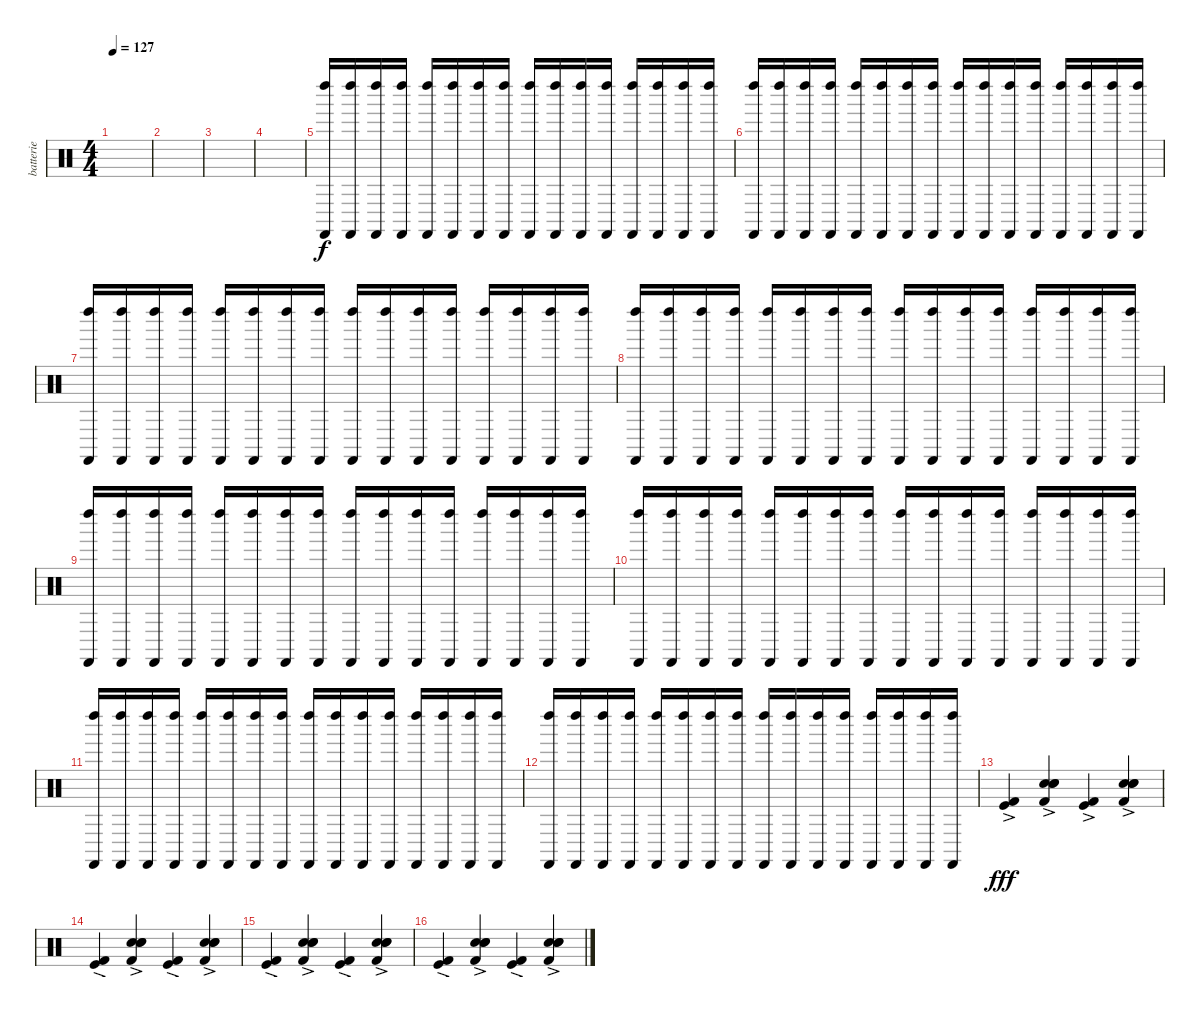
\track ("batterie" "batterie") {instrument percussion}
\staff {score}
\articulation defaults
\ts (4 4)
\tempo 127
\clef neutral
\ks c
|
|
|
|
("Castanets (hit)" "Left Maraca (hit)").16 ("Castanets (hit)" "Left Maraca (hit)").16 ("Castanets (hit)" "Left Maraca (hit)").16 ("Castanets (hit)" "Left Maraca (hit)").16 ("Castanets (hit)" "Left Maraca (hit)").16 ("Castanets (hit)" "Left Maraca (hit)").16 ("Castanets (hit)" "Left Maraca (hit)").16 ("Castanets (hit)" "Left Maraca (hit)").16 ("Castanets (hit)" "Left Maraca (hit)").16 ("Castanets (hit)" "Left Maraca (hit)").16 ("Castanets (hit)" "Left Maraca (hit)").16 ("Castanets (hit)" "Left Maraca (hit)").16 ("Castanets (hit)" "Left Maraca (hit)").16 ("Castanets (hit)" "Left Maraca (hit)").16 ("Castanets (hit)" "Left Maraca (hit)").16 ("Castanets (hit)" "Left Maraca (hit)").16 |
("Castanets (hit)" "Left Maraca (hit)").16 ("Castanets (hit)" "Left Maraca (hit)").16 ("Castanets (hit)" "Left Maraca (hit)").16 ("Castanets (hit)" "Left Maraca (hit)").16 ("Castanets (hit)" "Left Maraca (hit)").16 ("Castanets (hit)" "Left Maraca (hit)").16 ("Castanets (hit)" "Left Maraca (hit)").16 ("Castanets (hit)" "Left Maraca (hit)").16 ("Castanets (hit)" "Left Maraca (hit)").16 ("Castanets (hit)" "Left Maraca (hit)").16 ("Castanets (hit)" "Left Maraca (hit)").16 ("Castanets (hit)" "Left Maraca (hit)").16 ("Castanets (hit)" "Left Maraca (hit)").16 ("Castanets (hit)" "Left Maraca (hit)").16 ("Castanets (hit)" "Left Maraca (hit)").16 ("Castanets (hit)" "Left Maraca (hit)").16 |
("Castanets (hit)" "Left Maraca (hit)").16 ("Castanets (hit)" "Left Maraca (hit)").16 ("Castanets (hit)" "Left Maraca (hit)").16 ("Castanets (hit)" "Left Maraca (hit)").16 ("Castanets (hit)" "Left Maraca (hit)").16 ("Castanets (hit)" "Left Maraca (hit)").16 ("Castanets (hit)" "Left Maraca (hit)").16 ("Castanets (hit)" "Left Maraca (hit)").16 ("Castanets (hit)" "Left Maraca (hit)").16 ("Castanets (hit)" "Left Maraca (hit)").16 ("Castanets (hit)" "Left Maraca (hit)").16 ("Castanets (hit)" "Left Maraca (hit)").16 ("Castanets (hit)" "Left Maraca (hit)").16 ("Castanets (hit)" "Left Maraca (hit)").16 ("Castanets (hit)" "Left Maraca (hit)").16 ("Castanets (hit)" "Left Maraca (hit)").16 |
("Castanets (hit)" "Left Maraca (hit)").16 ("Castanets (hit)" "Left Maraca (hit)").16 ("Castanets (hit)" "Left Maraca (hit)").16 ("Castanets (hit)" "Left Maraca (hit)").16 ("Castanets (hit)" "Left Maraca (hit)").16 ("Castanets (hit)" "Left Maraca (hit)").16 ("Castanets (hit)" "Left Maraca (hit)").16 ("Castanets (hit)" "Left Maraca (hit)").16 ("Castanets (hit)" "Left Maraca (hit)").16 ("Castanets (hit)" "Left Maraca (hit)").16 ("Castanets (hit)" "Left Maraca (hit)").16 ("Castanets (hit)" "Left Maraca (hit)").16 ("Castanets (hit)" "Left Maraca (hit)").16 ("Castanets (hit)" "Left Maraca (hit)").16 ("Castanets (hit)" "Left Maraca (hit)").16 ("Castanets (hit)" "Left Maraca (hit)").16 |
("Castanets (hit)" "Left Maraca (hit)").16 ("Castanets (hit)" "Left Maraca (hit)").16 ("Castanets (hit)" "Left Maraca (hit)").16 ("Castanets (hit)" "Left Maraca (hit)").16 ("Castanets (hit)" "Left Maraca (hit)").16 ("Castanets (hit)" "Left Maraca (hit)").16 ("Castanets (hit)" "Left Maraca (hit)").16 ("Castanets (hit)" "Left Maraca (hit)").16 ("Castanets (hit)" "Left Maraca (hit)").16 ("Castanets (hit)" "Left Maraca (hit)").16 ("Castanets (hit)" "Left Maraca (hit)").16 ("Castanets (hit)" "Left Maraca (hit)").16 ("Castanets (hit)" "Left Maraca (hit)").16 ("Castanets (hit)" "Left Maraca (hit)").16 ("Castanets (hit)" "Left Maraca (hit)").16 ("Castanets (hit)" "Left Maraca (hit)").16 |
("Castanets (hit)" "Left Maraca (hit)").16 ("Castanets (hit)" "Left Maraca (hit)").16 ("Castanets (hit)" "Left Maraca (hit)").16 ("Castanets (hit)" "Left Maraca (hit)").16 ("Castanets (hit)" "Left Maraca (hit)").16 ("Castanets (hit)" "Left Maraca (hit)").16 ("Castanets (hit)" "Left Maraca (hit)").16 ("Castanets (hit)" "Left Maraca (hit)").16 ("Castanets (hit)" "Left Maraca (hit)").16 ("Castanets (hit)" "Left Maraca (hit)").16 ("Castanets (hit)" "Left Maraca (hit)").16 ("Castanets (hit)" "Left Maraca (hit)").16 ("Castanets (hit)" "Left Maraca (hit)").16 ("Castanets (hit)" "Left Maraca (hit)").16 ("Castanets (hit)" "Left Maraca (hit)").16 ("Castanets (hit)" "Left Maraca (hit)").16 |
("Castanets (hit)" "Left Maraca (hit)").16 ("Castanets (hit)" "Left Maraca (hit)").16 ("Castanets (hit)" "Left Maraca (hit)").16 ("Castanets (hit)" "Left Maraca (hit)").16 ("Castanets (hit)" "Left Maraca (hit)").16 ("Castanets (hit)" "Left Maraca (hit)").16 ("Castanets (hit)" "Left Maraca (hit)").16 ("Castanets (hit)" "Left Maraca (hit)").16 ("Castanets (hit)" "Left Maraca (hit)").16 ("Castanets (hit)" "Left Maraca (hit)").16 ("Castanets (hit)" "Left Maraca (hit)").16 ("Castanets (hit)" "Left Maraca (hit)").16 ("Castanets (hit)" "Left Maraca (hit)").16 ("Castanets (hit)" "Left Maraca (hit)").16 ("Castanets (hit)" "Left Maraca (hit)").16 ("Castanets (hit)" "Left Maraca (hit)").16 |
("Castanets (hit)" "Left Maraca (hit)").16 ("Castanets (hit)" "Left Maraca (hit)").16 ("Castanets (hit)" "Left Maraca (hit)").16 ("Castanets (hit)" "Left Maraca (hit)").16 ("Castanets (hit)" "Left Maraca (hit)").16 ("Castanets (hit)" "Left Maraca (hit)").16 ("Castanets (hit)" "Left Maraca (hit)").16 ("Castanets (hit)" "Left Maraca (hit)").16 ("Castanets (hit)" "Left Maraca (hit)").16 ("Castanets (hit)" "Left Maraca (hit)").16 ("Castanets (hit)" "Left Maraca (hit)").16 ("Castanets (hit)" "Left Maraca (hit)").16 ("Castanets (hit)" "Left Maraca (hit)").16 ("Castanets (hit)" "Left Maraca (hit)").16 ("Castanets (hit)" "Left Maraca (hit)").16 ("Castanets (hit)" "Left Maraca (hit)").16 |
("Kick (hit) 2" "Kick (hit)"{ac}).4{dy fff} ("Hand Clap (hit)"{ac} "Kick (hit) 2" "Electric Snare (hit)" "Snare (hit) 2").4 ("Kick (hit) 2" "Kick (hit)"{ac}).4 ("Hand Clap (hit)"{ac} "Kick (hit) 2" "Electric Snare (hit)" "Snare (hit) 2").4 |
("Kick (hit) 2" "Kick (hit)"{ac}).4 ("Hand Clap (hit)"{ac} "Kick (hit) 2" "Electric Snare (hit)" "Snare (hit) 2").4 ("Kick (hit) 2" "Kick (hit)"{ac}).4 ("Hand Clap (hit)"{ac} "Kick (hit) 2" "Electric Snare (hit)" "Snare (hit) 2").4 |
("Kick (hit) 2" "Kick (hit)"{ac}).4 ("Hand Clap (hit)"{ac} "Kick (hit) 2" "Electric Snare (hit)" "Snare (hit) 2").4 ("Kick (hit) 2" "Kick (hit)"{ac}).4 ("Hand Clap (hit)"{ac} "Kick (hit) 2" "Electric Snare (hit)" "Snare (hit) 2").4 |
("Kick (hit) 2" "Kick (hit)"{ac}).4 ("Hand Clap (hit)"{ac} "Kick (hit) 2" "Electric Snare (hit)" "Snare (hit) 2").4 ("Kick (hit) 2" "Kick (hit)"{ac}).4 ("Hand Clap (hit)"{ac} "Kick (hit) 2" "Electric Snare (hit)" "Snare (hit) 2").4
